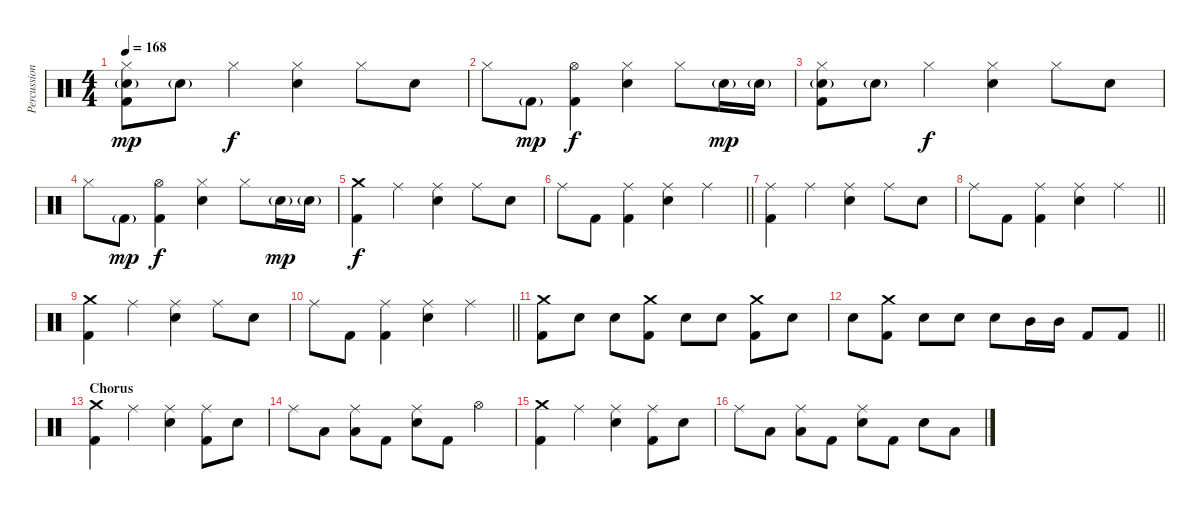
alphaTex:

\track ("Percussion" "Percussion") {instrument percussion}
\staff {score}
\articulation defaults
\ts (4 4)
\tempo 168
\clef neutral
\ks c
("Hi-Hat (closed)" "Electric Snare (hit)"{g} "Kick (hit) 2").8{dy mp} "Electric Snare (hit)"{g}.8 "Hi-Hat (closed)".4{dy f} ("Hi-Hat (closed)" "Electric Snare (hit)").4 "Hi-Hat (closed)".8 "Electric Snare (hit)".8 |
"Hi-Hat (closed)".8 "Kick (hit) 2"{g}.8{dy mp} ("Hi-Hat (open)" "Kick (hit) 2").4{dy f} ("Hi-Hat (closed)" "Electric Snare (hit)").4 "Hi-Hat (closed)".8 "Electric Snare (hit)"{g}.16{dy mp} "Electric Snare (hit)"{g}.16 |
("Hi-Hat (closed)" "Electric Snare (hit)"{g} "Kick (hit) 2").8 "Electric Snare (hit)"{g}.8 "Hi-Hat (closed)".4{dy f} ("Hi-Hat (closed)" "Electric Snare (hit)").4 "Hi-Hat (closed)".8 "Electric Snare (hit)".8 |
"Hi-Hat (closed)".8 "Kick (hit) 2"{g}.8{dy mp} ("Hi-Hat (open)" "Kick (hit) 2").4{dy f} ("Hi-Hat (closed)" "Electric Snare (hit)").4 "Hi-Hat (closed)".8 "Electric Snare (hit)"{g}.16{dy mp} "Electric Snare (hit)"{g}.16 |
("Crash medium (hit)" "Kick (hit) 2").4{dy f} "Ride (middle)".4 ("Ride (middle)" "Electric Snare (hit)").4 "Ride (middle)".8 "Electric Snare (hit)".8 |
\barLineRight lightlight "Ride (middle)".8 "Kick (hit) 2".8
("Ride (middle)" "Kick (hit) 2").4 ("Ride (middle)" "Electric Snare (hit)").4 "Ride (middle)".4 |
("Ride (middle)" "Kick (hit) 2").4 "Ride (middle)".4 ("Ride (middle)" "Electric Snare (hit)").4 "Ride (middle)".8 "Electric Snare (hit)".8 |
\barLineRight lightlight "Ride (middle)".8 "Kick (hit) 2".8
("Ride (middle)" "Kick (hit) 2").4 ("Ride (middle)" "Electric Snare (hit)").4 "Ride (middle)".4 |
("Crash medium (hit)" "Kick (hit) 2").4 "Ride (middle)".4 ("Ride (middle)" "Electric Snare (hit)").4 "Ride (middle)".8 "Electric Snare (hit)".8 |
\barLineRight lightlight "Ride (middle)".8 "Kick (hit) 2".8
("Ride (middle)" "Kick (hit) 2").4 ("Ride (middle)" "Electric Snare (hit)").4 "Ride (middle)".4 |
("Crash medium (hit)" "Kick (hit) 2").8 "Electric Snare (hit)".8 "Electric Snare (hit)".8 ("Crash medium (hit)" "Kick (hit) 2").8 "Electric Snare (hit)".8 "Electric Snare (hit)".8 ("Crash medium (hit)" "Kick (hit) 2").8 "Electric Snare (hit)".8 |
\barLineRight lightlight "Electric Snare (hit)".8
("Crash medium (hit)" "Kick (hit) 2").8 "Electric Snare (hit)".8 "Electric Snare (hit)".8 "Electric Snare (hit)".8 "Mid Tom (hit)".16 "Mid Tom (hit)".16 "Kick (hit) 2".8 "Kick (hit) 2".8 |
\section ("" "Chorus")
("Crash medium (hit)" "Kick (hit) 2").4 "Ride (middle)".4 ("Ride (middle)" "Electric Snare (hit)").4 ("Ride (middle)" "Kick (hit) 2").8 "Electric Snare (hit)".8 |
"Ride (middle)".8 "Low Tom (hit)".8 ("Ride (middle)" "Low Tom (hit)").8 "Kick (hit) 2".8 ("Ride (middle)" "Electric Snare (hit)").8 "Kick (hit) 2".8 "Hi-Hat (open)".4 |
("Crash medium (hit)" "Kick (hit) 2").4 "Ride (middle)".4 ("Ride (middle)" "Electric Snare (hit)").4 ("Ride (middle)" "Kick (hit) 2").8 "Electric Snare (hit)".8 |
"Ride (middle)".8 "Low Tom (hit)".8 ("Ride (middle)" "Low Tom (hit)").8 "Kick (hit) 2".8 ("Ride (middle)" "Electric Snare (hit)").8 "Kick (hit) 2".8 "Electric Snare (hit)".8 "Low Tom (hit)".8
